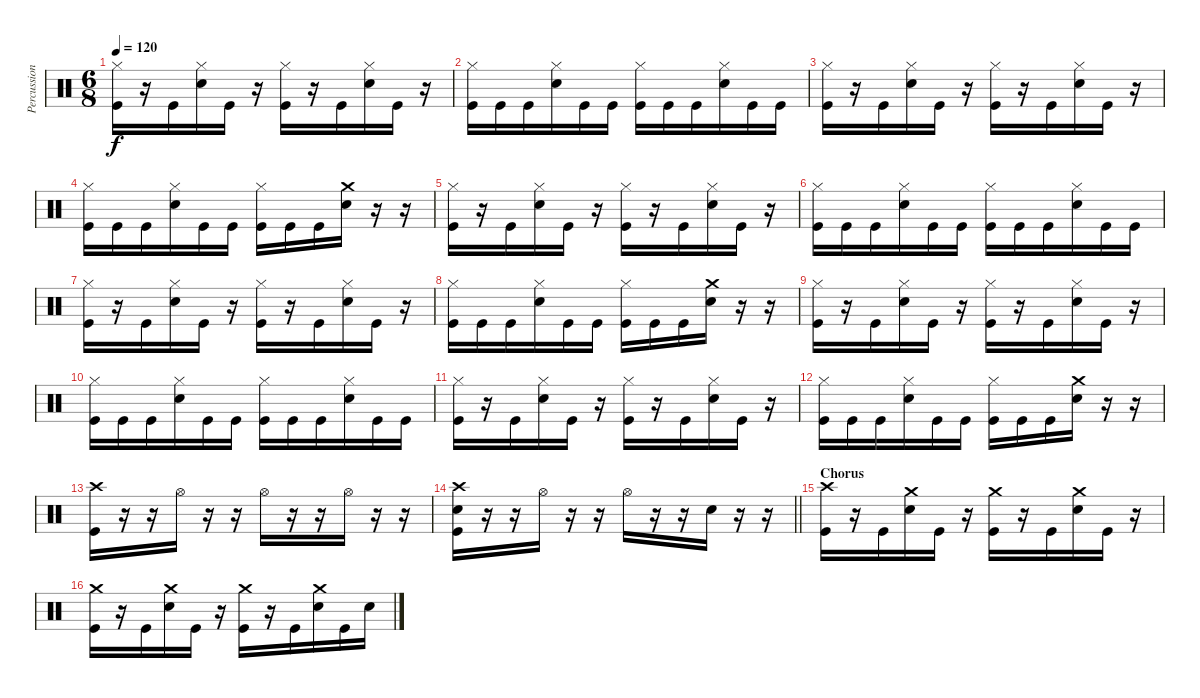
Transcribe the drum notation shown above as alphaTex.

\track ("Percussion" "Percussion") {instrument percussion}
\staff {score}
\articulation defaults
\ts (6 8)
\tempo 120
\clef neutral
\ks c
("Hi-Hat (closed)" "Kick (hit)").16{dy f} r.16 "Kick (hit)".16 ("Hi-Hat (closed)" "Snare (hit) 2").16 "Kick (hit)".16 r.16 ("Hi-Hat (closed)" "Kick (hit)").16 r.16 "Kick (hit)".16 ("Hi-Hat (closed)" "Snare (hit) 2").16 "Kick (hit)".16 r.16 |
("Hi-Hat (closed)" "Kick (hit)").16 "Kick (hit)".16 "Kick (hit)".16 ("Hi-Hat (closed)" "Snare (hit) 2").16 "Kick (hit)".16 "Kick (hit)".16 ("Hi-Hat (closed)" "Kick (hit)").16 "Kick (hit)".16 "Kick (hit)".16 ("Hi-Hat (closed)" "Snare (hit) 2").16 "Kick (hit)".16 "Kick (hit)".16 |
("Hi-Hat (closed)" "Kick (hit)").16 r.16 "Kick (hit)".16 ("Hi-Hat (closed)" "Snare (hit) 2").16 "Kick (hit)".16 r.16 ("Hi-Hat (closed)" "Kick (hit)").16 r.16 "Kick (hit)".16 ("Hi-Hat (closed)" "Snare (hit) 2").16 "Kick (hit)".16 r.16 |
("Hi-Hat (closed)" "Kick (hit)").16 "Kick (hit)".16 "Kick (hit)".16 ("Hi-Hat (closed)" "Snare (hit) 2").16 "Kick (hit)".16 "Kick (hit)".16 ("Hi-Hat (closed)" "Kick (hit)").16 "Kick (hit)".16 "Kick (hit)".16 ("Crash medium (hit)" "Snare (hit) 2").16 r.16 r.16 |
("Hi-Hat (closed)" "Kick (hit)").16 r.16 "Kick (hit)".16 ("Hi-Hat (closed)" "Snare (hit) 2").16 "Kick (hit)".16 r.16 ("Hi-Hat (closed)" "Kick (hit)").16 r.16 "Kick (hit)".16 ("Hi-Hat (closed)" "Snare (hit) 2").16 "Kick (hit)".16 r.16 |
("Hi-Hat (closed)" "Kick (hit)").16 "Kick (hit)".16 "Kick (hit)".16 ("Hi-Hat (closed)" "Snare (hit) 2").16 "Kick (hit)".16 "Kick (hit)".16 ("Hi-Hat (closed)" "Kick (hit)").16 "Kick (hit)".16 "Kick (hit)".16 ("Hi-Hat (closed)" "Snare (hit) 2").16 "Kick (hit)".16 "Kick (hit)".16 |
("Hi-Hat (closed)" "Kick (hit)").16 r.16 "Kick (hit)".16 ("Hi-Hat (closed)" "Snare (hit) 2").16 "Kick (hit)".16 r.16 ("Hi-Hat (closed)" "Kick (hit)").16 r.16 "Kick (hit)".16 ("Hi-Hat (closed)" "Snare (hit) 2").16 "Kick (hit)".16 r.16 |
("Hi-Hat (closed)" "Kick (hit)").16 "Kick (hit)".16 "Kick (hit)".16 ("Hi-Hat (closed)" "Snare (hit) 2").16 "Kick (hit)".16 "Kick (hit)".16 ("Hi-Hat (closed)" "Kick (hit)").16 "Kick (hit)".16 "Kick (hit)".16 ("Crash medium (hit)" "Snare (hit) 2").16 r.16 r.16 |
("Hi-Hat (closed)" "Kick (hit)").16 r.16 "Kick (hit)".16 ("Hi-Hat (closed)" "Snare (hit) 2").16 "Kick (hit)".16 r.16 ("Hi-Hat (closed)" "Kick (hit)").16 r.16 "Kick (hit)".16 ("Hi-Hat (closed)" "Snare (hit) 2").16 "Kick (hit)".16 r.16 |
("Hi-Hat (closed)" "Kick (hit)").16 "Kick (hit)".16 "Kick (hit)".16 ("Hi-Hat (closed)" "Snare (hit) 2").16 "Kick (hit)".16 "Kick (hit)".16 ("Hi-Hat (closed)" "Kick (hit)").16 "Kick (hit)".16 "Kick (hit)".16 ("Hi-Hat (closed)" "Snare (hit) 2").16 "Kick (hit)".16 "Kick (hit)".16 |
("Hi-Hat (closed)" "Kick (hit)").16 r.16 "Kick (hit)".16 ("Hi-Hat (closed)" "Snare (hit) 2").16 "Kick (hit)".16 r.16 ("Hi-Hat (closed)" "Kick (hit)").16 r.16 "Kick (hit)".16 ("Hi-Hat (closed)" "Snare (hit) 2").16 "Kick (hit)".16 r.16 |
("Hi-Hat (closed)" "Kick (hit)").16 "Kick (hit)".16 "Kick (hit)".16 ("Hi-Hat (closed)" "Snare (hit) 2").16 "Kick (hit)".16 "Kick (hit)".16 ("Hi-Hat (closed)" "Kick (hit)").16 "Kick (hit)".16 "Kick (hit)".16 ("Crash medium (hit)" "Snare (hit) 2").16 r.16 r.16 |
("Crash high (hit)" "Kick (hit)").16 r.16 r.16 "Hi-Hat (open)".16 r.16 r.16 "Hi-Hat (open)".16 r.16 r.16 "Hi-Hat (open)".16 r.16 r.16 |
\barLineRight lightlight
("Crash high (hit)" "Snare (hit) 2" "Kick (hit)").16 r.16 r.16 "Hi-Hat (open)".16 r.16 r.16 "Hi-Hat (open)".16 r.16 r.16 "Snare (hit) 2".16 r.16 r.16 |
\section ("" "Chorus")
("Crash high (hit)" "Kick (hit)").16 r.16 "Kick (hit)".16 ("Crash medium (hit)" "Snare (hit) 2").16 "Kick (hit)".16 r.16 ("Crash medium (hit)" "Kick (hit)").16 r.16 "Kick (hit)".16 ("Crash medium (hit)" "Snare (hit) 2").16 "Kick (hit)".16 r.16 |
("Crash medium (hit)" "Kick (hit)").16 r.16 "Kick (hit)".16 ("Crash medium (hit)" "Snare (hit) 2").16 "Kick (hit)".16 r.16 ("Crash medium (hit)" "Kick (hit)").16 r.16 "Kick (hit)".16 ("Crash medium (hit)" "Snare (hit) 2").16 "Kick (hit)".16 "Snare (hit) 2".16
